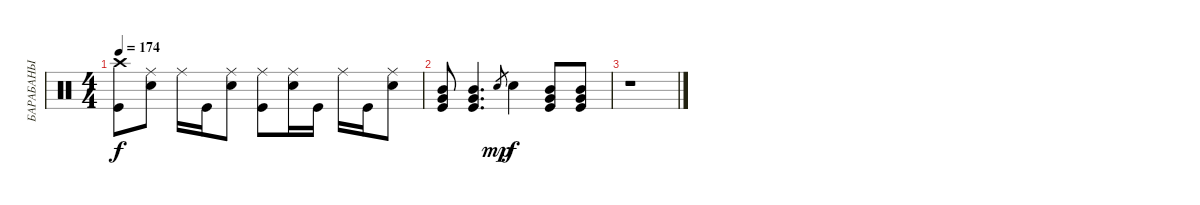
\track ("БАРАБАНЫ" "БАРАБАНЫ") {instrument percussion}
\staff {score}
\articulation defaults
\ts (4 4)
\tempo 174
\clef neutral
\ks c
("Crash high (hit)" "Kick (hit)").8{dy f} ("Ride (middle)" "Electric Snare (hit)").8 "Ride (middle)".16 "Kick (hit)".16 ("Ride (middle)" "Electric Snare (hit)").8 ("Ride (middle)" "Kick (hit)").8 ("Ride (middle)" "Electric Snare (hit)").16 "Kick (hit)".16 "Ride (middle)".16 "Kick (hit)".16 ("Ride (middle)" "Electric Snare (hit)").8 |
("Mid Tom (hit)" "Very Low Tom (hit)" "Kick (hit)").8 ("Mid Tom (hit)" "Very Low Tom (hit)" "Kick (hit)").4{d} "Electric Snare (hit)".8{gr dy mp} "Electric Snare (hit)".4{dy f} ("Mid Tom (hit)" "Very Low Tom (hit)" "Kick (hit)").8 ("Mid Tom (hit)" "Very Low Tom (hit)" "Kick (hit)").8 |
r.1
